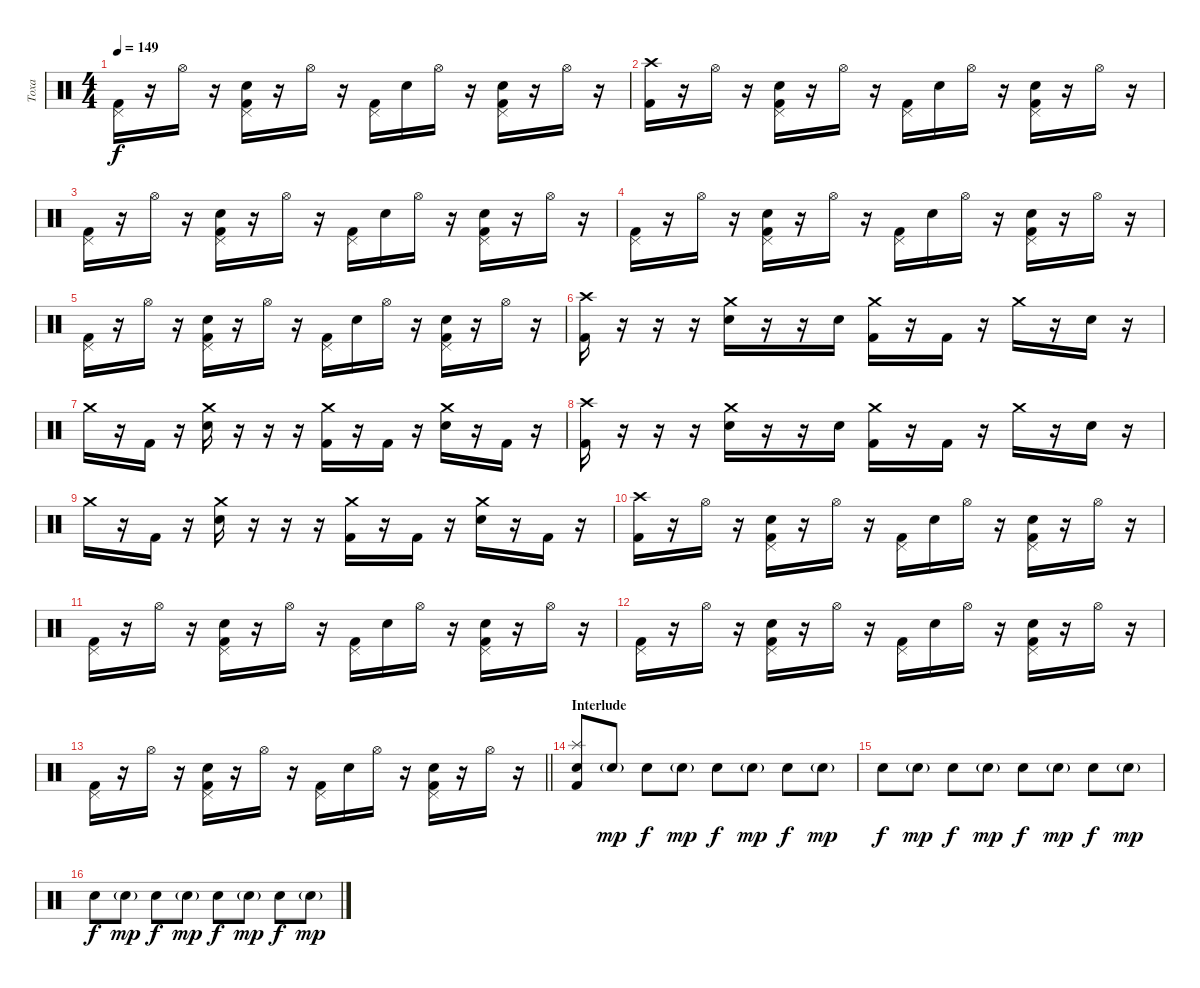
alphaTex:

\track ("Toxa" "Toxa") {instrument percussion}
\staff {score}
\articulation defaults
\ts (4 4)
\tempo 149
\clef neutral
\ks c
("Kick (hit) 2" "Pedal Hi-Hat (hit)").16{dy f} r.16 "Hi-Hat (open)".16 r.16 ("Snare (hit) 2" "Pedal Hi-Hat (hit)" "Kick (hit) 2").16 r.16 "Hi-Hat (open)".16 r.16 ("Kick (hit) 2" "Pedal Hi-Hat (hit)").16 "Snare (hit) 2".16 "Hi-Hat (open)".16 r.16 ("Snare (hit) 2" "Kick (hit) 2" "Pedal Hi-Hat (hit)").16 r.16 "Hi-Hat (open)".16 r.16 |
("Kick (hit) 2" "Crash high (hit)").16 r.16 "Hi-Hat (open)".16 r.16 ("Snare (hit) 2" "Pedal Hi-Hat (hit)" "Kick (hit) 2").16 r.16 "Hi-Hat (open)".16 r.16 ("Kick (hit) 2" "Pedal Hi-Hat (hit)").16 "Snare (hit) 2".16 "Hi-Hat (open)".16 r.16 ("Snare (hit) 2" "Kick (hit) 2" "Pedal Hi-Hat (hit)").16 r.16 "Hi-Hat (open)".16 r.16 |
("Kick (hit) 2" "Pedal Hi-Hat (hit)").16 r.16 "Hi-Hat (open)".16 r.16 ("Snare (hit) 2" "Pedal Hi-Hat (hit)" "Kick (hit) 2").16 r.16 "Hi-Hat (open)".16 r.16 ("Kick (hit) 2" "Pedal Hi-Hat (hit)").16 "Snare (hit) 2".16 "Hi-Hat (open)".16 r.16 ("Snare (hit) 2" "Kick (hit) 2" "Pedal Hi-Hat (hit)").16 r.16 "Hi-Hat (open)".16 r.16 |
("Kick (hit) 2" "Pedal Hi-Hat (hit)").16 r.16 "Hi-Hat (open)".16 r.16 ("Snare (hit) 2" "Pedal Hi-Hat (hit)" "Kick (hit) 2").16 r.16 "Hi-Hat (open)".16 r.16 ("Kick (hit) 2" "Pedal Hi-Hat (hit)").16 "Snare (hit) 2".16 "Hi-Hat (open)".16 r.16 ("Snare (hit) 2" "Kick (hit) 2" "Pedal Hi-Hat (hit)").16 r.16 "Hi-Hat (open)".16 r.16 |
("Kick (hit) 2" "Pedal Hi-Hat (hit)").16 r.16 "Hi-Hat (open)".16 r.16 ("Snare (hit) 2" "Pedal Hi-Hat (hit)" "Kick (hit) 2").16 r.16 "Hi-Hat (open)".16 r.16 ("Kick (hit) 2" "Pedal Hi-Hat (hit)").16 "Snare (hit) 2".16 "Hi-Hat (open)".16 r.16 ("Snare (hit) 2" "Kick (hit) 2" "Pedal Hi-Hat (hit)").16 r.16 "Hi-Hat (open)".16 r.16 |
("Kick (hit) 2" "Crash high (hit)").16 r.16 r.16 r.16 ("Snare (hit) 2" "Crash medium (hit)").16 r.16 r.16 "Snare (hit) 2".16 ("Kick (hit) 2" "Crash medium (hit)").16 r.16 "Kick (hit) 2".16 r.16 "Crash medium (hit)".16 r.16 "Snare (hit) 2".16 r.16 |
"Crash medium (hit)".16 r.16 "Kick (hit) 2".16 r.16 ("Snare (hit) 2" "Crash medium (hit)").16 r.16 r.16 r.16 ("Kick (hit) 2" "Crash medium (hit)").16 r.16 "Kick (hit) 2".16 r.16 ("Snare (hit) 2" "Crash medium (hit)").16 r.16 "Kick (hit) 2".16 r.16 |
("Kick (hit) 2" "Crash high (hit)").16 r.16 r.16 r.16 ("Snare (hit) 2" "Crash medium (hit)").16 r.16 r.16 "Snare (hit) 2".16 ("Kick (hit) 2" "Crash medium (hit)").16 r.16 "Kick (hit) 2".16 r.16 "Crash medium (hit)".16 r.16 "Snare (hit) 2".16 r.16 |
"Crash medium (hit)".16 r.16 "Kick (hit) 2".16 r.16 ("Snare (hit) 2" "Crash medium (hit)").16 r.16 r.16 r.16 ("Kick (hit) 2" "Crash medium (hit)").16 r.16 "Kick (hit) 2".16 r.16 ("Snare (hit) 2" "Crash medium (hit)").16 r.16 "Kick (hit) 2".16 r.16 |
("Kick (hit) 2" "Crash high (hit)").16 r.16 "Hi-Hat (open)".16 r.16 ("Snare (hit) 2" "Pedal Hi-Hat (hit)" "Kick (hit) 2").16 r.16 "Hi-Hat (open)".16 r.16 ("Kick (hit) 2" "Pedal Hi-Hat (hit)").16 "Snare (hit) 2".16 "Hi-Hat (open)".16 r.16 ("Snare (hit) 2" "Kick (hit) 2" "Pedal Hi-Hat (hit)").16 r.16 "Hi-Hat (open)".16 r.16 |
("Kick (hit) 2" "Pedal Hi-Hat (hit)").16 r.16 "Hi-Hat (open)".16 r.16 ("Snare (hit) 2" "Pedal Hi-Hat (hit)" "Kick (hit) 2").16 r.16 "Hi-Hat (open)".16 r.16 ("Kick (hit) 2" "Pedal Hi-Hat (hit)").16 "Snare (hit) 2".16 "Hi-Hat (open)".16 r.16 ("Snare (hit) 2" "Kick (hit) 2" "Pedal Hi-Hat (hit)").16 r.16 "Hi-Hat (open)".16 r.16 |
("Kick (hit) 2" "Pedal Hi-Hat (hit)").16 r.16 "Hi-Hat (open)".16 r.16 ("Snare (hit) 2" "Pedal Hi-Hat (hit)" "Kick (hit) 2").16 r.16 "Hi-Hat (open)".16 r.16 ("Kick (hit) 2" "Pedal Hi-Hat (hit)").16 "Snare (hit) 2".16 "Hi-Hat (open)".16 r.16 ("Snare (hit) 2" "Kick (hit) 2" "Pedal Hi-Hat (hit)").16 r.16 "Hi-Hat (open)".16 r.16 |
\barLineRight lightlight
("Kick (hit) 2" "Pedal Hi-Hat (hit)").16 r.16 "Hi-Hat (open)".16 r.16 ("Snare (hit) 2" "Pedal Hi-Hat (hit)" "Kick (hit) 2").16 r.16 "Hi-Hat (open)".16 r.16 ("Kick (hit) 2" "Pedal Hi-Hat (hit)").16 "Snare (hit) 2".16 "Hi-Hat (open)".16 r.16 ("Snare (hit) 2" "Kick (hit) 2" "Pedal Hi-Hat (hit)").16 r.16 "Hi-Hat (open)".16 r.16 |
\section ("" "Interlude")
("Kick (hit) 2" "Splash (hit)" "Hand Clap (hit)").8 "Hand Clap (hit)"{g}.8{dy mp} "Hand Clap (hit)".8{dy f} "Hand Clap (hit)"{g}.8{dy mp} "Hand Clap (hit)".8{dy f} "Hand Clap (hit)"{g}.8{dy mp} "Hand Clap (hit)".8{dy f} "Hand Clap (hit)"{g}.8{dy mp} |
"Hand Clap (hit)".8{dy f} "Hand Clap (hit)"{g}.8{dy mp} "Hand Clap (hit)".8{dy f} "Hand Clap (hit)"{g}.8{dy mp} "Hand Clap (hit)".8{dy f} "Hand Clap (hit)"{g}.8{dy mp} "Hand Clap (hit)".8{dy f} "Hand Clap (hit)"{g}.8{dy mp} |
"Hand Clap (hit)".8{dy f} "Hand Clap (hit)"{g}.8{dy mp} "Hand Clap (hit)".8{dy f} "Hand Clap (hit)"{g}.8{dy mp} "Hand Clap (hit)".8{dy f} "Hand Clap (hit)"{g}.8{dy mp} "Hand Clap (hit)".8{dy f} "Hand Clap (hit)"{g}.8{dy mp}
